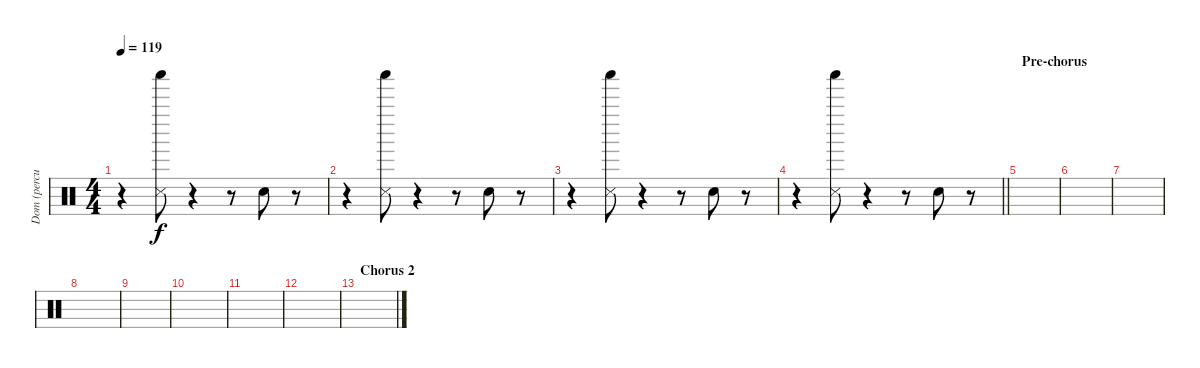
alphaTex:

\track ("Dom (percussions)" "Dom (percu") {instrument percussion}
\staff {score}
\articulation defaults
\ts (4 4)
\tempo 119
\clef neutral
\ks c
r.4{dy f} ("Shaker (hit)" "Metronome (hit)").8 r.4 r.8 "Hand Clap (hit)".8 r.8 |
r.4 ("Shaker (hit)" "Metronome (hit)").8 r.4 r.8 "Hand Clap (hit)".8 r.8 |
r.4 ("Shaker (hit)" "Metronome (hit)").8 r.4 r.8 "Hand Clap (hit)".8 r.8 |
\barLineRight lightlight
r.4 ("Shaker (hit)" "Metronome (hit)").8 r.4 r.8 "Hand Clap (hit)".8 r.8 |
\section ("" "Pre-chorus")
|
|
|
|
|
|
|
|
\section ("" "Chorus 2")
